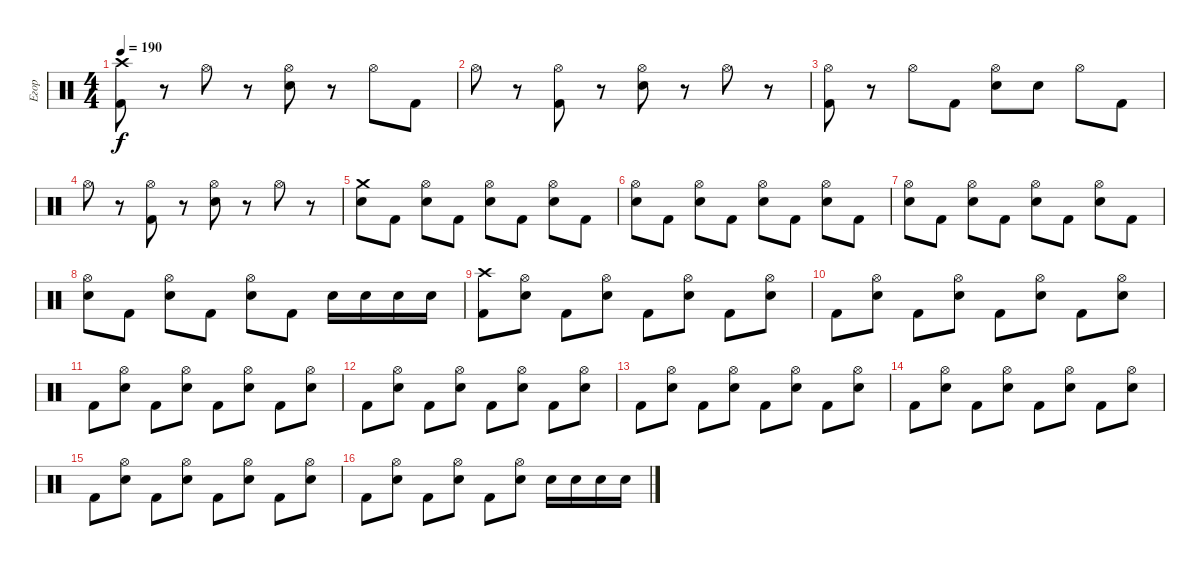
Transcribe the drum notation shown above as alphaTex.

\track ("Егор" "Егор") {instrument percussion}
\staff {score}
\articulation defaults
\ts (4 4)
\tempo 190
\clef neutral
\ks c
("Crash high (hit)" "Kick (hit) 2").8{dy f} r.8 "Hi-Hat (open)".8 r.8 ("Hi-Hat (open)" "Snare (hit) 2").8 r.8 "Hi-Hat (open)".8 "Kick (hit) 2".8 |
"Hi-Hat (open)".8 r.8 ("Hi-Hat (open)" "Kick (hit) 2").8 r.8 ("Hi-Hat (open)" "Snare (hit) 2").8 r.8 "Hi-Hat (open)".8 r.8 |
("Hi-Hat (open)" "Kick (hit) 2").8 r.8 "Hi-Hat (open)".8 "Kick (hit) 2".8 ("Hi-Hat (open)" "Snare (hit) 2").8 "Snare (hit) 2".8 "Hi-Hat (open)".8 "Kick (hit) 2".8 |
"Hi-Hat (open)".8 r.8 ("Hi-Hat (open)" "Kick (hit) 2").8 r.8 ("Hi-Hat (open)" "Snare (hit) 2").8 r.8 "Hi-Hat (open)".8 r.8 |
("Snare (hit) 2" "Crash medium (hit)").8 "Kick (hit) 2".8 ("Hi-Hat (open)" "Snare (hit) 2").8 "Kick (hit) 2".8 ("Hi-Hat (open)" "Snare (hit) 2").8 "Kick (hit) 2".8 ("Hi-Hat (open)" "Snare (hit) 2").8 "Kick (hit) 2".8 |
("Hi-Hat (open)" "Snare (hit) 2").8 "Kick (hit) 2".8 ("Hi-Hat (open)" "Snare (hit) 2").8 "Kick (hit) 2".8 ("Hi-Hat (open)" "Snare (hit) 2").8 "Kick (hit) 2".8 ("Hi-Hat (open)" "Snare (hit) 2").8 "Kick (hit) 2".8 |
("Hi-Hat (open)" "Snare (hit) 2").8 "Kick (hit) 2".8 ("Hi-Hat (open)" "Snare (hit) 2").8 "Kick (hit) 2".8 ("Hi-Hat (open)" "Snare (hit) 2").8 "Kick (hit) 2".8 ("Hi-Hat (open)" "Snare (hit) 2").8 "Kick (hit) 2".8 |
("Hi-Hat (open)" "Snare (hit) 2").8 "Kick (hit) 2".8 ("Hi-Hat (open)" "Snare (hit) 2").8 "Kick (hit) 2".8 ("Hi-Hat (open)" "Snare (hit) 2").8 "Kick (hit) 2".8 "Snare (hit) 2".16 "Snare (hit) 2".16 "Snare (hit) 2".16 "Snare (hit) 2".16 |
("Crash high (hit)" "Kick (hit) 2").8 ("Hi-Hat (open)" "Snare (hit) 2").8 "Kick (hit) 2".8 ("Hi-Hat (open)" "Snare (hit) 2").8 "Kick (hit) 2".8 ("Hi-Hat (open)" "Snare (hit) 2").8 "Kick (hit) 2".8 ("Hi-Hat (open)" "Snare (hit) 2").8 |
"Kick (hit) 2".8 ("Hi-Hat (open)" "Snare (hit) 2").8 "Kick (hit) 2".8 ("Hi-Hat (open)" "Snare (hit) 2").8 "Kick (hit) 2".8 ("Hi-Hat (open)" "Snare (hit) 2").8 "Kick (hit) 2".8 ("Hi-Hat (open)" "Snare (hit) 2").8 |
"Kick (hit) 2".8 ("Hi-Hat (open)" "Snare (hit) 2").8 "Kick (hit) 2".8 ("Hi-Hat (open)" "Snare (hit) 2").8 "Kick (hit) 2".8 ("Hi-Hat (open)" "Snare (hit) 2").8 "Kick (hit) 2".8 ("Hi-Hat (open)" "Snare (hit) 2").8 |
"Kick (hit) 2".8 ("Hi-Hat (open)" "Snare (hit) 2").8 "Kick (hit) 2".8 ("Hi-Hat (open)" "Snare (hit) 2").8 "Kick (hit) 2".8 ("Hi-Hat (open)" "Snare (hit) 2").8 "Kick (hit) 2".8 ("Hi-Hat (open)" "Snare (hit) 2").8 |
"Kick (hit) 2".8 ("Hi-Hat (open)" "Snare (hit) 2").8 "Kick (hit) 2".8 ("Hi-Hat (open)" "Snare (hit) 2").8 "Kick (hit) 2".8 ("Hi-Hat (open)" "Snare (hit) 2").8 "Kick (hit) 2".8 ("Hi-Hat (open)" "Snare (hit) 2").8 |
"Kick (hit) 2".8 ("Hi-Hat (open)" "Snare (hit) 2").8 "Kick (hit) 2".8 ("Hi-Hat (open)" "Snare (hit) 2").8 "Kick (hit) 2".8 ("Hi-Hat (open)" "Snare (hit) 2").8 "Kick (hit) 2".8 ("Hi-Hat (open)" "Snare (hit) 2").8 |
"Kick (hit) 2".8 ("Hi-Hat (open)" "Snare (hit) 2").8 "Kick (hit) 2".8 ("Hi-Hat (open)" "Snare (hit) 2").8 "Kick (hit) 2".8 ("Hi-Hat (open)" "Snare (hit) 2").8 "Kick (hit) 2".8 ("Hi-Hat (open)" "Snare (hit) 2").8 |
"Kick (hit) 2".8 ("Hi-Hat (open)" "Snare (hit) 2").8 "Kick (hit) 2".8 ("Hi-Hat (open)" "Snare (hit) 2").8 "Kick (hit) 2".8 ("Hi-Hat (open)" "Snare (hit) 2").8 "Snare (hit) 2".16 "Snare (hit) 2".16 "Snare (hit) 2".16 "Snare (hit) 2".16
